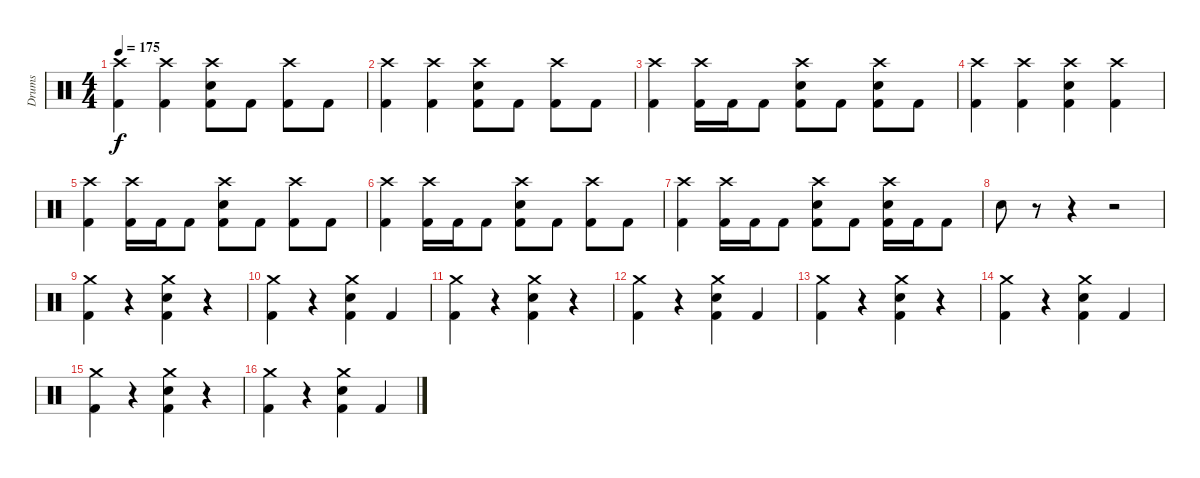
\track ("Drums" "Drums") {instrument percussion}
\staff {score}
\articulation defaults
\ts (4 4)
\tempo 175
\clef neutral
\ks c
("Crash high (hit)" "Kick (hit) 2").4{dy f} ("Crash high (hit)" "Kick (hit) 2").4 ("Crash high (hit)" "Snare (hit) 2" "Kick (hit) 2").8 "Kick (hit) 2".8 ("Crash high (hit)" "Kick (hit) 2").8 "Kick (hit) 2".8 |
("Crash high (hit)" "Kick (hit) 2").4 ("Crash high (hit)" "Kick (hit) 2").4 ("Crash high (hit)" "Snare (hit) 2" "Kick (hit) 2").8 "Kick (hit) 2".8 ("Crash high (hit)" "Kick (hit) 2").8 "Kick (hit) 2".8 |
("Crash high (hit)" "Kick (hit) 2").4 ("Crash high (hit)" "Kick (hit) 2").16 "Kick (hit) 2".16 "Kick (hit) 2".8 ("Crash high (hit)" "Snare (hit) 2" "Kick (hit) 2").8 "Kick (hit) 2".8 ("Crash high (hit)" "Snare (hit) 2" "Kick (hit) 2").8 "Kick (hit) 2".8 |
("Crash high (hit)" "Kick (hit) 2").4 ("Crash high (hit)" "Kick (hit) 2").4 ("Crash high (hit)" "Snare (hit) 2" "Kick (hit) 2").4 ("Crash high (hit)" "Kick (hit) 2").4 |
("Crash high (hit)" "Kick (hit) 2").4 ("Crash high (hit)" "Kick (hit) 2").16 "Kick (hit) 2".16 "Kick (hit) 2".8 ("Crash high (hit)" "Snare (hit) 2" "Kick (hit) 2").8 "Kick (hit) 2".8 ("Crash high (hit)" "Kick (hit) 2").8 "Kick (hit) 2".8 |
("Crash high (hit)" "Kick (hit) 2").4 ("Crash high (hit)" "Kick (hit) 2").16 "Kick (hit) 2".16 "Kick (hit) 2".8 ("Crash high (hit)" "Snare (hit) 2" "Kick (hit) 2").8 "Kick (hit) 2".8 ("Crash high (hit)" "Kick (hit) 2").8 "Kick (hit) 2".8 |
("Crash high (hit)" "Kick (hit) 2").4 ("Crash high (hit)" "Kick (hit) 2").16 "Kick (hit) 2".16 "Kick (hit) 2".8 ("Crash high (hit)" "Snare (hit) 2" "Kick (hit) 2").8 "Kick (hit) 2".8 ("Crash high (hit)" "Snare (hit) 2" "Kick (hit) 2").16 "Kick (hit) 2".16 "Kick (hit) 2".8 |
"Snare (hit) 2".8 r.8 r.4 r.2 |
("Crash medium (hit)" "Kick (hit) 2").4 r.4 ("Crash medium (hit)" "Snare (hit) 2" "Kick (hit) 2").4 r.4 |
("Crash medium (hit)" "Kick (hit) 2").4 r.4 ("Crash medium (hit)" "Snare (hit) 2" "Kick (hit) 2").4 "Kick (hit) 2".4 |
("Crash medium (hit)" "Kick (hit) 2").4 r.4 ("Crash medium (hit)" "Snare (hit) 2" "Kick (hit) 2").4 r.4 |
("Crash medium (hit)" "Kick (hit) 2").4 r.4 ("Crash medium (hit)" "Snare (hit) 2" "Kick (hit) 2").4 "Kick (hit) 2".4 |
("Crash medium (hit)" "Kick (hit) 2").4 r.4 ("Crash medium (hit)" "Snare (hit) 2" "Kick (hit) 2").4 r.4 |
("Crash medium (hit)" "Kick (hit) 2").4 r.4 ("Crash medium (hit)" "Snare (hit) 2" "Kick (hit) 2").4 "Kick (hit) 2".4 |
("Crash medium (hit)" "Kick (hit) 2").4 r.4 ("Crash medium (hit)" "Snare (hit) 2" "Kick (hit) 2").4 r.4 |
("Crash medium (hit)" "Kick (hit) 2").4 r.4 ("Crash medium (hit)" "Snare (hit) 2" "Kick (hit) 2").4 "Kick (hit) 2".4
